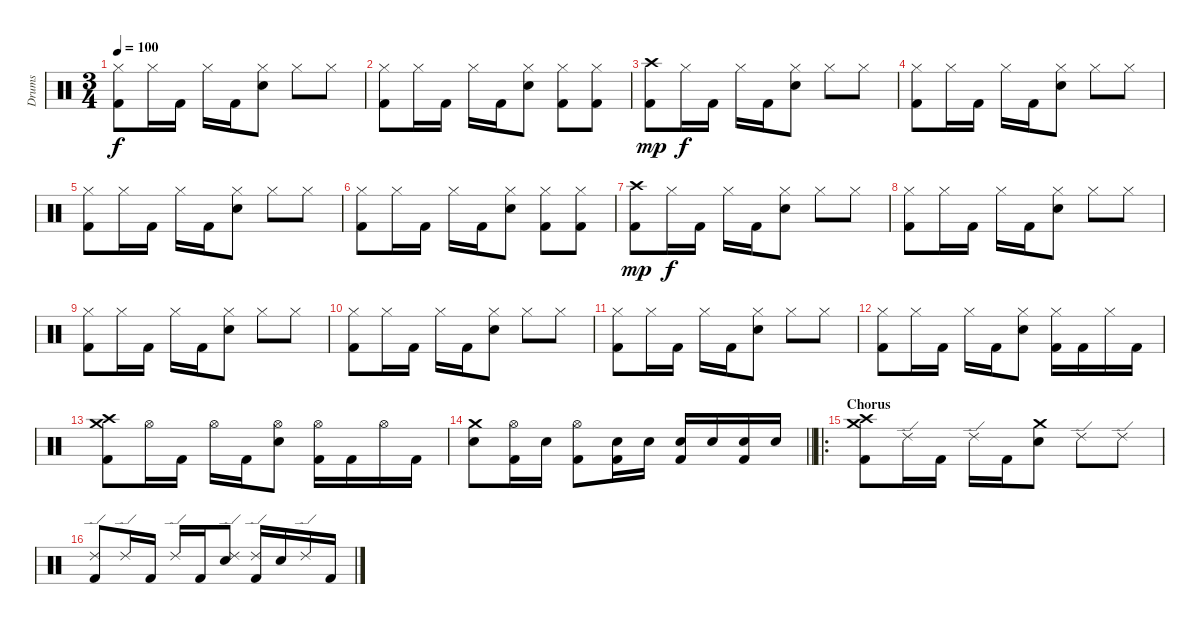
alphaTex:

\track ("Drums" "Drums") {instrument percussion}
\staff {score}
\articulation defaults
\ts (3 4)
\tempo 100
\clef neutral
\ks c
("Hi-Hat (closed)" "Kick (hit) 2").8{dy f} "Hi-Hat (closed)".16 "Kick (hit) 2".16 "Hi-Hat (closed)".16 "Kick (hit) 2".16 ("Hi-Hat (closed)" "Electric Snare (hit)").8 "Hi-Hat (closed)".8 "Hi-Hat (closed)".8 |
("Hi-Hat (closed)" "Kick (hit) 2").8 "Hi-Hat (closed)".16 "Kick (hit) 2".16 "Hi-Hat (closed)".16 "Kick (hit) 2".16 ("Hi-Hat (closed)" "Electric Snare (hit)").8 ("Hi-Hat (closed)" "Kick (hit) 2").8 ("Hi-Hat (closed)" "Kick (hit) 2").8 |
("Crash high (hit)" "Kick (hit) 2").8{dy mp} "Hi-Hat (closed)".16{dy f} "Kick (hit) 2".16 "Hi-Hat (closed)".16 "Kick (hit) 2".16 ("Hi-Hat (closed)" "Electric Snare (hit)").8 "Hi-Hat (closed)".8 "Hi-Hat (closed)".8 |
("Hi-Hat (closed)" "Kick (hit) 2").8 "Hi-Hat (closed)".16 "Kick (hit) 2".16 "Hi-Hat (closed)".16 "Kick (hit) 2".16 ("Hi-Hat (closed)" "Electric Snare (hit)").8 "Hi-Hat (closed)".8 "Hi-Hat (closed)".8 |
("Hi-Hat (closed)" "Kick (hit) 2").8 "Hi-Hat (closed)".16 "Kick (hit) 2".16 "Hi-Hat (closed)".16 "Kick (hit) 2".16 ("Hi-Hat (closed)" "Electric Snare (hit)").8 "Hi-Hat (closed)".8 "Hi-Hat (closed)".8 |
("Hi-Hat (closed)" "Kick (hit) 2").8 "Hi-Hat (closed)".16 "Kick (hit) 2".16 "Hi-Hat (closed)".16 "Kick (hit) 2".16 ("Hi-Hat (closed)" "Electric Snare (hit)").8 ("Hi-Hat (closed)" "Kick (hit) 2").8 ("Hi-Hat (closed)" "Kick (hit) 2").8 |
("Crash high (hit)" "Kick (hit) 2").8{dy mp} "Hi-Hat (closed)".16{dy f} "Kick (hit) 2".16 "Hi-Hat (closed)".16 "Kick (hit) 2".16 ("Hi-Hat (closed)" "Electric Snare (hit)").8 "Hi-Hat (closed)".8 "Hi-Hat (closed)".8 |
("Hi-Hat (closed)" "Kick (hit) 2").8 "Hi-Hat (closed)".16 "Kick (hit) 2".16 "Hi-Hat (closed)".16 "Kick (hit) 2".16 ("Hi-Hat (closed)" "Electric Snare (hit)").8 "Hi-Hat (closed)".8 "Hi-Hat (closed)".8 |
("Hi-Hat (closed)" "Kick (hit) 2").8 "Hi-Hat (closed)".16 "Kick (hit) 2".16 "Hi-Hat (closed)".16 "Kick (hit) 2".16 ("Hi-Hat (closed)" "Electric Snare (hit)").8 "Hi-Hat (closed)".8 "Hi-Hat (closed)".8 |
("Hi-Hat (closed)" "Kick (hit) 2").8 "Hi-Hat (closed)".16 "Kick (hit) 2".16 "Hi-Hat (closed)".16 "Kick (hit) 2".16 ("Hi-Hat (closed)" "Electric Snare (hit)").8 "Hi-Hat (closed)".8 "Hi-Hat (closed)".8 |
("Hi-Hat (closed)" "Kick (hit) 2").8 "Hi-Hat (closed)".16 "Kick (hit) 2".16 "Hi-Hat (closed)".16 "Kick (hit) 2".16 ("Hi-Hat (closed)" "Electric Snare (hit)").8 "Hi-Hat (closed)".8 "Hi-Hat (closed)".8 |
("Hi-Hat (closed)" "Kick (hit) 2").8 "Hi-Hat (closed)".16 "Kick (hit) 2".16 "Hi-Hat (closed)".16 "Kick (hit) 2".16 ("Hi-Hat (closed)" "Electric Snare (hit)").8 ("Hi-Hat (closed)" "Kick (hit) 2").16 "Kick (hit) 2".16 "Hi-Hat (closed)".16 "Kick (hit) 2".16 |
("Crash medium (hit)" "Crash high (hit)" "Kick (hit) 2").8 "Hi-Hat (open)".16 "Kick (hit) 2".16 "Hi-Hat (open)".16 "Kick (hit) 2".16 ("Hi-Hat (open)" "Electric Snare (hit)").8 ("Hi-Hat (open)" "Kick (hit) 2").16 "Kick (hit) 2".16 "Hi-Hat (open)".16 "Kick (hit) 2".16 |
\barLineRight lightlight
("Crash medium (hit)" "Electric Snare (hit)").8 ("Hi-Hat (open)" "Kick (hit) 2").16 "Electric Snare (hit)".16 ("Hi-Hat (open)" "Kick (hit) 2").8 ("Electric Snare (hit)" "Kick (hit) 2").16 "Electric Snare (hit)".16 ("Electric Snare (hit)" "Kick (hit) 2").16 "Electric Snare (hit)".16 ("Electric Snare (hit)" "Kick (hit) 2").16 "Electric Snare (hit)".16 |
\ro
\section ("" "Chorus")
("Crash high (hit)" "Crash medium (hit)" "Kick (hit) 2").8 "Ride (edge) 2".16 "Kick (hit) 2".16 "Ride (edge) 2".16 "Kick (hit) 2".16 ("Crash medium (hit)" "Electric Snare (hit)").8 "Ride (edge) 2".8 "Ride (edge) 2".8 |
("Ride (edge) 2" "Kick (hit) 2").8 "Ride (edge) 2".16 "Kick (hit) 2".16 "Ride (edge) 2".16 "Kick (hit) 2".16 ("Ride (edge) 2" "Electric Snare (hit)").8 ("Ride (edge) 2" "Kick (hit) 2").16 "Electric Snare (hit)".16 "Ride (edge) 2".16 "Kick (hit) 2".16
